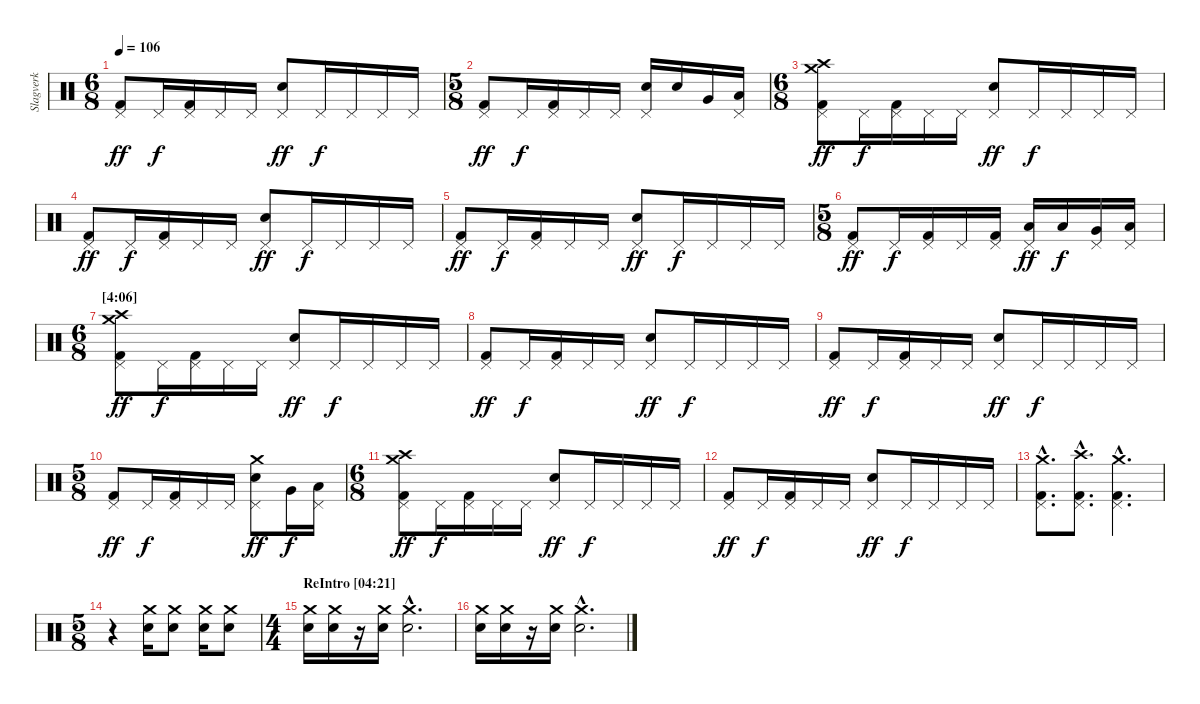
\track ("Slagverk" "Slagverk") {instrument percussion}
\staff {score}
\articulation defaults
\ts (6 8)
\tempo 106
\clef neutral
\ks c
("Pedal Hi-Hat (hit)" "Kick (hit) 2").8{dy ff} "Pedal Hi-Hat (hit)".16{dy f} ("Pedal Hi-Hat (hit)" "Kick (hit) 2").16 "Pedal Hi-Hat (hit)".16 "Pedal Hi-Hat (hit)".16 ("Pedal Hi-Hat (hit)" "Electric Snare (hit)").8{dy ff} "Pedal Hi-Hat (hit)".16{dy f} "Pedal Hi-Hat (hit)".16 "Pedal Hi-Hat (hit)".16 "Pedal Hi-Hat (hit)".16 |
\ts (5 8)
("Pedal Hi-Hat (hit)" "Kick (hit) 2").8{dy ff} "Pedal Hi-Hat (hit)".16{dy f} ("Pedal Hi-Hat (hit)" "Kick (hit) 2").16 "Pedal Hi-Hat (hit)".16 "Pedal Hi-Hat (hit)".16 ("Pedal Hi-Hat (hit)" "Electric Snare (hit)").16 "Electric Snare (hit)".16 "Very Low Tom (hit)".16 ("Pedal Hi-Hat (hit)" "Low Floor Tom (hit)").16 |
\ts (6 8)
("Pedal Hi-Hat (hit)" "Crash medium (hit)" "Crash high (hit)" "Kick (hit) 2").8{dy ff} "Pedal Hi-Hat (hit)".16{dy f} ("Pedal Hi-Hat (hit)" "Kick (hit) 2").16 "Pedal Hi-Hat (hit)".16 "Pedal Hi-Hat (hit)".16 ("Pedal Hi-Hat (hit)" "Electric Snare (hit)").8{dy ff} "Pedal Hi-Hat (hit)".16{dy f} "Pedal Hi-Hat (hit)".16 "Pedal Hi-Hat (hit)".16 "Pedal Hi-Hat (hit)".16 |
("Pedal Hi-Hat (hit)" "Kick (hit) 2").8{dy ff} "Pedal Hi-Hat (hit)".16{dy f} ("Pedal Hi-Hat (hit)" "Kick (hit) 2").16 "Pedal Hi-Hat (hit)".16 "Pedal Hi-Hat (hit)".16 ("Pedal Hi-Hat (hit)" "Electric Snare (hit)").8{dy ff} "Pedal Hi-Hat (hit)".16{dy f} "Pedal Hi-Hat (hit)".16 "Pedal Hi-Hat (hit)".16 "Pedal Hi-Hat (hit)".16 |
("Pedal Hi-Hat (hit)" "Kick (hit) 2").8{dy ff} "Pedal Hi-Hat (hit)".16{dy f} ("Pedal Hi-Hat (hit)" "Kick (hit) 2").16 "Pedal Hi-Hat (hit)".16 "Pedal Hi-Hat (hit)".16 ("Pedal Hi-Hat (hit)" "Electric Snare (hit)").8{dy ff} "Pedal Hi-Hat (hit)".16{dy f} "Pedal Hi-Hat (hit)".16 "Pedal Hi-Hat (hit)".16 "Pedal Hi-Hat (hit)".16 |
\ts (5 8)
("Pedal Hi-Hat (hit)" "Kick (hit) 2").8{dy ff} "Pedal Hi-Hat (hit)".16{dy f} ("Pedal Hi-Hat (hit)" "Kick (hit) 2").16 "Pedal Hi-Hat (hit)".16 ("Pedal Hi-Hat (hit)" "Kick (hit) 2").16 ("Pedal Hi-Hat (hit)" "Low Tom (hit)").16{dy ff} "Low Tom (hit)".16{dy f} ("Pedal Hi-Hat (hit)" "Very Low Tom (hit)").16 ("Pedal Hi-Hat (hit)" "Low Floor Tom (hit)").16 |
\ts (6 8)
\section ("" "[4:06]")
("Pedal Hi-Hat (hit)" "Crash medium (hit)" "Crash high (hit)" "Kick (hit) 2").8{dy ff} "Pedal Hi-Hat (hit)".16{dy f} ("Pedal Hi-Hat (hit)" "Kick (hit) 2").16 "Pedal Hi-Hat (hit)".16 "Pedal Hi-Hat (hit)".16 ("Pedal Hi-Hat (hit)" "Electric Snare (hit)").8{dy ff} "Pedal Hi-Hat (hit)".16{dy f} "Pedal Hi-Hat (hit)".16 "Pedal Hi-Hat (hit)".16 "Pedal Hi-Hat (hit)".16 |
("Pedal Hi-Hat (hit)" "Kick (hit) 2").8{dy ff} "Pedal Hi-Hat (hit)".16{dy f} ("Pedal Hi-Hat (hit)" "Kick (hit) 2").16 "Pedal Hi-Hat (hit)".16 "Pedal Hi-Hat (hit)".16 ("Pedal Hi-Hat (hit)" "Electric Snare (hit)").8{dy ff} "Pedal Hi-Hat (hit)".16{dy f} "Pedal Hi-Hat (hit)".16 "Pedal Hi-Hat (hit)".16 "Pedal Hi-Hat (hit)".16 |
("Pedal Hi-Hat (hit)" "Kick (hit) 2").8{dy ff} "Pedal Hi-Hat (hit)".16{dy f} ("Pedal Hi-Hat (hit)" "Kick (hit) 2").16 "Pedal Hi-Hat (hit)".16 "Pedal Hi-Hat (hit)".16 ("Pedal Hi-Hat (hit)" "Electric Snare (hit)").8{dy ff} "Pedal Hi-Hat (hit)".16{dy f} "Pedal Hi-Hat (hit)".16 "Pedal Hi-Hat (hit)".16 "Pedal Hi-Hat (hit)".16 |
\ts (5 8)
("Pedal Hi-Hat (hit)" "Kick (hit) 2").8{dy ff} "Pedal Hi-Hat (hit)".16{dy f} ("Pedal Hi-Hat (hit)" "Kick (hit) 2").16 "Pedal Hi-Hat (hit)".16 "Pedal Hi-Hat (hit)".16 ("Pedal Hi-Hat (hit)" "Crash medium (hit)" "Electric Snare (hit)").8{dy ff} "Very Low Tom (hit)".16{dy f} ("Pedal Hi-Hat (hit)" "Low Floor Tom (hit)").16 |
\ts (6 8)
("Pedal Hi-Hat (hit)" "Crash medium (hit)" "Crash high (hit)" "Kick (hit) 2").8{dy ff} "Pedal Hi-Hat (hit)".16{dy f} ("Pedal Hi-Hat (hit)" "Kick (hit) 2").16 "Pedal Hi-Hat (hit)".16 "Pedal Hi-Hat (hit)".16 ("Pedal Hi-Hat (hit)" "Electric Snare (hit)").8{dy ff} "Pedal Hi-Hat (hit)".16{dy f} "Pedal Hi-Hat (hit)".16 "Pedal Hi-Hat (hit)".16 "Pedal Hi-Hat (hit)".16 |
("Pedal Hi-Hat (hit)" "Kick (hit) 2").8{dy ff} "Pedal Hi-Hat (hit)".16{dy f} ("Pedal Hi-Hat (hit)" "Kick (hit) 2").16 "Pedal Hi-Hat (hit)".16 "Pedal Hi-Hat (hit)".16 ("Pedal Hi-Hat (hit)" "Electric Snare (hit)").8{dy ff} "Pedal Hi-Hat (hit)".16{dy f} "Pedal Hi-Hat (hit)".16 "Pedal Hi-Hat (hit)".16 "Pedal Hi-Hat (hit)".16 |
("Pedal Hi-Hat (hit)"{hac} "Crash medium (hit)"{hac} "Kick (hit) 2"{hac}).8{d} ("Pedal Hi-Hat (hit)"{hac} "Crash high (hit)"{hac} "Kick (hit) 2"{hac}).8{d} ("Pedal Hi-Hat (hit)"{hac} "Crash medium (hit)"{hac} "Kick (hit) 2"{hac}).4{d} |
\ts (5 8)
r.4 ("Crash medium (hit)" "Electric Snare (hit)").16 ("Crash medium (hit)" "Electric Snare (hit)").8 ("Crash medium (hit)" "Electric Snare (hit)").16 ("Crash medium (hit)" "Electric Snare (hit)").8 |
\ts (4 4)
\section ("" "ReIntro [04:21]")
("Crash medium (hit)" "Electric Snare (hit)").16 ("Crash medium (hit)" "Electric Snare (hit)").16 r.16 ("Crash medium (hit)" "Electric Snare (hit)").16 ("Crash medium (hit)"{hac} "Electric Snare (hit)"{hac}).2{d} |
("Crash medium (hit)" "Electric Snare (hit)").16 ("Crash medium (hit)" "Electric Snare (hit)").16 r.16 ("Crash medium (hit)" "Electric Snare (hit)").16 ("Crash medium (hit)"{hac} "Electric Snare (hit)"{hac}).2{d}
